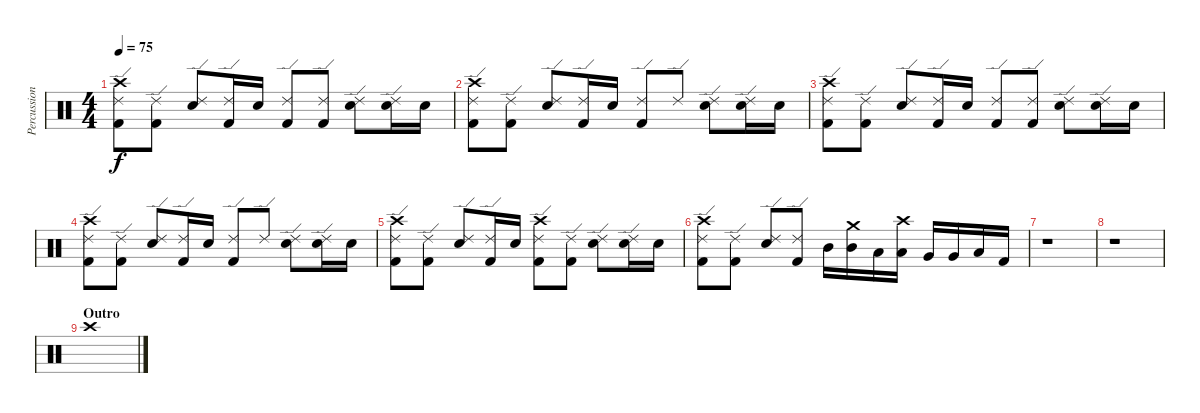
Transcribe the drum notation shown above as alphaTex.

\track ("Percussions" "Percussion") {instrument percussion}
\staff {score}
\articulation defaults
\ts (4 4)
\tempo 75
\clef neutral
\ks c
("Crash high (hit)" "Kick (hit) 2" "Ride (edge) 2").8{dy f} ("Kick (hit) 2" "Ride (edge) 2").8 ("Snare (hit) 2" "Ride (edge) 2").8 ("Kick (hit) 2" "Ride (edge) 2").16 "Snare (hit) 2".16 ("Kick (hit) 2" "Ride (edge) 2").8 ("Kick (hit) 2" "Ride (edge) 2").8 ("Snare (hit) 2" "Ride (edge) 2").8 ("Snare (hit) 2" "Ride (edge) 2").16 "Snare (hit) 2".16 |
("Crash high (hit)" "Kick (hit) 2" "Ride (edge) 2").8 ("Kick (hit) 2" "Ride (edge) 2").8 ("Snare (hit) 2" "Ride (edge) 2").8 ("Kick (hit) 2" "Ride (edge) 2").16 "Snare (hit) 2".16 ("Kick (hit) 2" "Ride (edge) 2").8 "Ride (edge) 2".8 ("Snare (hit) 2" "Ride (edge) 2").8 ("Snare (hit) 2" "Ride (edge) 2").16 "Snare (hit) 2".16 |
("Crash high (hit)" "Kick (hit) 2" "Ride (edge) 2").8 ("Kick (hit) 2" "Ride (edge) 2").8 ("Snare (hit) 2" "Ride (edge) 2").8 ("Kick (hit) 2" "Ride (edge) 2").16 "Snare (hit) 2".16 ("Kick (hit) 2" "Ride (edge) 2").8 ("Kick (hit) 2" "Ride (edge) 2").8 ("Snare (hit) 2" "Ride (edge) 2").8 ("Snare (hit) 2" "Ride (edge) 2").16 "Snare (hit) 2".16 |
("Crash high (hit)" "Kick (hit) 2" "Ride (edge) 2").8 ("Kick (hit) 2" "Ride (edge) 2").8 ("Snare (hit) 2" "Ride (edge) 2").8 ("Kick (hit) 2" "Ride (edge) 2").16 "Snare (hit) 2".16 ("Kick (hit) 2" "Ride (edge) 2").8 "Ride (edge) 2".8 ("Snare (hit) 2" "Ride (edge) 2").8 ("Snare (hit) 2" "Ride (edge) 2").16 "Snare (hit) 2".16 |
("Crash high (hit)" "Kick (hit) 2" "Ride (edge) 2").8 ("Kick (hit) 2" "Ride (edge) 2").8 ("Snare (hit) 2" "Ride (edge) 2").8 ("Kick (hit) 2" "Ride (edge) 2").16 "Snare (hit) 2".16 ("Crash high (hit)" "Kick (hit) 2" "Ride (edge) 2").8 ("Kick (hit) 2" "Ride (edge) 2").8 ("Snare (hit) 2" "Ride (edge) 2").8 ("Snare (hit) 2" "Ride (edge) 2").16 "Snare (hit) 2".16 |
("Crash high (hit)" "Kick (hit) 2" "Ride (edge) 2").8 ("Kick (hit) 2" "Ride (edge) 2").8 ("Electric Snare (hit)" "Ride (edge) 2").8 ("Kick (hit) 2" "Ride (edge) 2").8 "Mid Tom (hit)".16 ("Crash medium (hit)" "Mid Tom (hit)").16 "Low Tom (hit)".16 ("Crash high (hit)" "Low Tom (hit)").16 "Very Low Tom (hit)".16 "Very Low Tom (hit)".16 "Low Floor Tom (hit)".16 "Kick (hit) 2".16 |
r.1 |
r.1 |
\section ("" "Outro")
"Crash high (hit)".1
